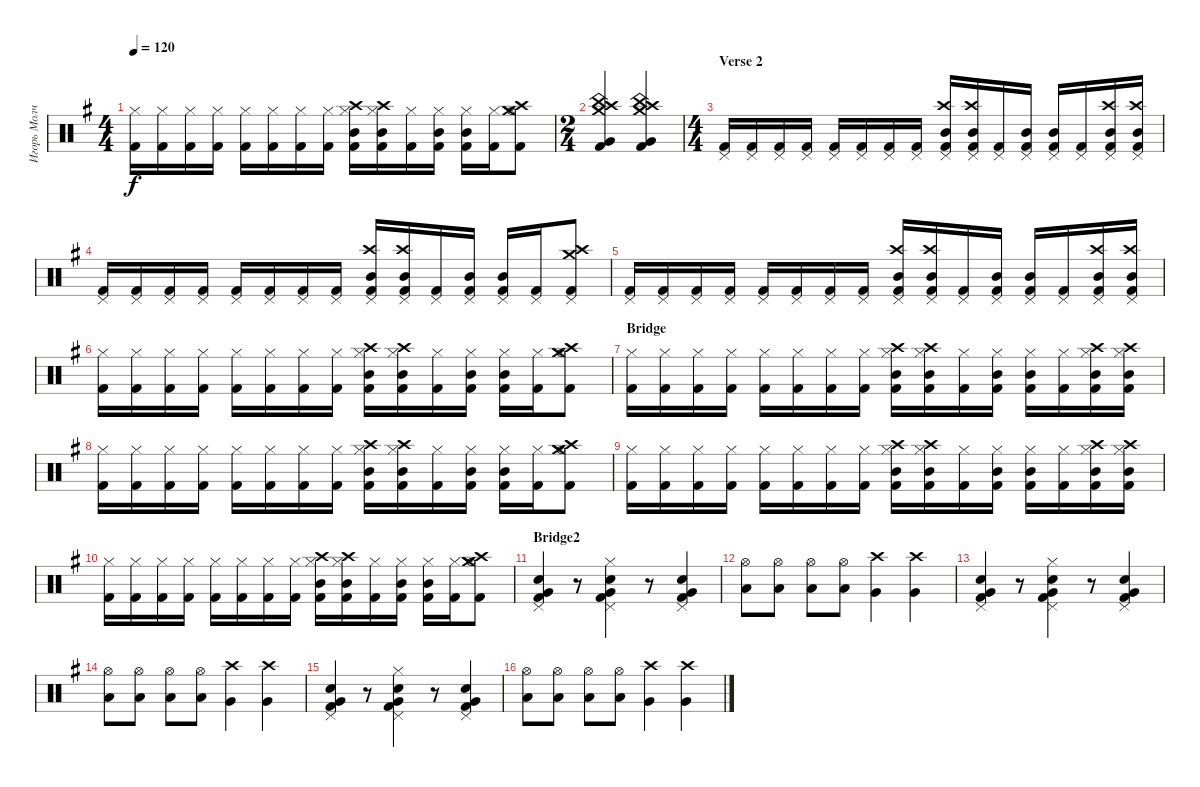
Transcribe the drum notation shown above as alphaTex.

\track ("Игорь Молчанов" "Игорь Молч") {instrument percussion}
\staff {score}
\articulation defaults
\ts (4 4)
\tempo 120
\clef neutral
\ks eminor
("Hi-Hat (closed)" "Kick (hit) 2").16{dy f} ("Hi-Hat (closed)" "Kick (hit) 2").16 ("Hi-Hat (closed)" "Kick (hit) 2").16 ("Hi-Hat (closed)" "Kick (hit) 2").16 ("Hi-Hat (closed)" "Kick (hit) 2").16 ("Hi-Hat (closed)" "Kick (hit) 2").16 ("Hi-Hat (closed)" "Kick (hit) 2").16 ("Hi-Hat (closed)" "Kick (hit) 2").16 ("Mid Tom (hit)" "Crash high (hit)" "Hi-Hat (closed)" "Kick (hit) 2").16 ("Mid Tom (hit)" "Crash high (hit)" "Hi-Hat (closed)" "Kick (hit) 2").16 ("Hi-Hat (closed)" "Kick (hit) 2").16 ("Mid Tom (hit)" "Hi-Hat (closed)" "Kick (hit) 2").16 ("Mid Tom (hit)" "Hi-Hat (closed)" "Kick (hit) 2").16 ("Hi-Hat (closed)" "Kick (hit) 2").16 ("Crash medium (hit)" "Crash high (hit)" "Hi-Hat (open)" "Kick (hit) 2").8 |
\ts (2 4)
("Crash medium (hit)" "China (hit)" "Crash high (hit)" "Very Low Tom (hit)" "Kick (hit) 2").4 ("Crash medium (hit)" "China (hit)" "Crash high (hit)" "Very Low Tom (hit)" "Kick (hit) 2").4 |
\ts (4 4)
\section ("" "Verse 2")
("Pedal Hi-Hat (hit)" "Kick (hit) 2").16 ("Pedal Hi-Hat (hit)" "Kick (hit) 2").16 ("Pedal Hi-Hat (hit)" "Kick (hit) 2").16 ("Pedal Hi-Hat (hit)" "Kick (hit) 2").16 ("Pedal Hi-Hat (hit)" "Kick (hit) 2").16 ("Pedal Hi-Hat (hit)" "Kick (hit) 2").16 ("Pedal Hi-Hat (hit)" "Kick (hit) 2").16 ("Pedal Hi-Hat (hit)" "Kick (hit) 2").16 ("Mid Tom (hit)" "Crash high (hit)" "Pedal Hi-Hat (hit)" "Kick (hit) 2").16 ("Mid Tom (hit)" "Crash high (hit)" "Pedal Hi-Hat (hit)" "Kick (hit) 2").16 ("Pedal Hi-Hat (hit)" "Kick (hit) 2").16 ("Mid Tom (hit)" "Pedal Hi-Hat (hit)" "Kick (hit) 2").16 ("Mid Tom (hit)" "Pedal Hi-Hat (hit)" "Kick (hit) 2").16 ("Pedal Hi-Hat (hit)" "Kick (hit) 2").16 ("Mid Tom (hit)" "Crash high (hit)" "Pedal Hi-Hat (hit)" "Kick (hit) 2").16 ("Mid Tom (hit)" "Crash high (hit)" "Pedal Hi-Hat (hit)" "Kick (hit) 2").16 |
("Pedal Hi-Hat (hit)" "Kick (hit) 2").16 ("Pedal Hi-Hat (hit)" "Kick (hit) 2").16 ("Pedal Hi-Hat (hit)" "Kick (hit) 2").16 ("Pedal Hi-Hat (hit)" "Kick (hit) 2").16 ("Pedal Hi-Hat (hit)" "Kick (hit) 2").16 ("Pedal Hi-Hat (hit)" "Kick (hit) 2").16 ("Pedal Hi-Hat (hit)" "Kick (hit) 2").16 ("Pedal Hi-Hat (hit)" "Kick (hit) 2").16 ("Mid Tom (hit)" "Crash high (hit)" "Pedal Hi-Hat (hit)" "Kick (hit) 2").16 ("Mid Tom (hit)" "Crash high (hit)" "Pedal Hi-Hat (hit)" "Kick (hit) 2").16 ("Pedal Hi-Hat (hit)" "Kick (hit) 2").16 ("Mid Tom (hit)" "Pedal Hi-Hat (hit)" "Kick (hit) 2").16 ("Mid Tom (hit)" "Pedal Hi-Hat (hit)" "Kick (hit) 2").16 ("Pedal Hi-Hat (hit)" "Kick (hit) 2").16 ("Crash medium (hit)" "Crash high (hit)" "Pedal Hi-Hat (hit)" "Kick (hit) 2").8 |
("Pedal Hi-Hat (hit)" "Kick (hit) 2").16 ("Pedal Hi-Hat (hit)" "Kick (hit) 2").16 ("Pedal Hi-Hat (hit)" "Kick (hit) 2").16 ("Pedal Hi-Hat (hit)" "Kick (hit) 2").16 ("Pedal Hi-Hat (hit)" "Kick (hit) 2").16 ("Pedal Hi-Hat (hit)" "Kick (hit) 2").16 ("Pedal Hi-Hat (hit)" "Kick (hit) 2").16 ("Pedal Hi-Hat (hit)" "Kick (hit) 2").16 ("Mid Tom (hit)" "Crash high (hit)" "Pedal Hi-Hat (hit)" "Kick (hit) 2").16 ("Mid Tom (hit)" "Crash high (hit)" "Pedal Hi-Hat (hit)" "Kick (hit) 2").16 ("Pedal Hi-Hat (hit)" "Kick (hit) 2").16 ("Mid Tom (hit)" "Pedal Hi-Hat (hit)" "Kick (hit) 2").16 ("Mid Tom (hit)" "Pedal Hi-Hat (hit)" "Kick (hit) 2").16 ("Pedal Hi-Hat (hit)" "Kick (hit) 2").16 ("Mid Tom (hit)" "Crash high (hit)" "Pedal Hi-Hat (hit)" "Kick (hit) 2").16 ("Mid Tom (hit)" "Crash high (hit)" "Pedal Hi-Hat (hit)" "Kick (hit) 2").16 |
("Hi-Hat (closed)" "Kick (hit) 2").16 ("Hi-Hat (closed)" "Kick (hit) 2").16 ("Hi-Hat (closed)" "Kick (hit) 2").16 ("Hi-Hat (closed)" "Kick (hit) 2").16 ("Hi-Hat (closed)" "Kick (hit) 2").16 ("Hi-Hat (closed)" "Kick (hit) 2").16 ("Hi-Hat (closed)" "Kick (hit) 2").16 ("Hi-Hat (closed)" "Kick (hit) 2").16 ("Mid Tom (hit)" "Crash high (hit)" "Hi-Hat (closed)" "Kick (hit) 2").16 ("Mid Tom (hit)" "Crash high (hit)" "Hi-Hat (closed)" "Kick (hit) 2").16 ("Hi-Hat (closed)" "Kick (hit) 2").16 ("Mid Tom (hit)" "Hi-Hat (closed)" "Kick (hit) 2").16 ("Mid Tom (hit)" "Hi-Hat (closed)" "Kick (hit) 2").16 ("Hi-Hat (closed)" "Kick (hit) 2").16 ("Crash medium (hit)" "Crash high (hit)" "Hi-Hat (open)" "Kick (hit) 2").8 |
\section ("" "Bridge")
("Hi-Hat (closed)" "Kick (hit) 2").16 ("Hi-Hat (closed)" "Kick (hit) 2").16 ("Hi-Hat (closed)" "Kick (hit) 2").16 ("Hi-Hat (closed)" "Kick (hit) 2").16 ("Hi-Hat (closed)" "Kick (hit) 2").16 ("Hi-Hat (closed)" "Kick (hit) 2").16 ("Hi-Hat (closed)" "Kick (hit) 2").16 ("Hi-Hat (closed)" "Kick (hit) 2").16 ("Mid Tom (hit)" "Crash high (hit)" "Hi-Hat (closed)" "Kick (hit) 2").16 ("Mid Tom (hit)" "Crash high (hit)" "Hi-Hat (closed)" "Kick (hit) 2").16 ("Hi-Hat (closed)" "Kick (hit) 2").16 ("Mid Tom (hit)" "Hi-Hat (closed)" "Kick (hit) 2").16 ("Mid Tom (hit)" "Hi-Hat (closed)" "Kick (hit) 2").16 ("Hi-Hat (closed)" "Kick (hit) 2").16 ("Mid Tom (hit)" "Crash high (hit)" "Hi-Hat (closed)" "Kick (hit) 2").16 ("Mid Tom (hit)" "Crash high (hit)" "Hi-Hat (closed)" "Kick (hit) 2").16 |
("Hi-Hat (closed)" "Kick (hit) 2").16 ("Hi-Hat (closed)" "Kick (hit) 2").16 ("Hi-Hat (closed)" "Kick (hit) 2").16 ("Hi-Hat (closed)" "Kick (hit) 2").16 ("Hi-Hat (closed)" "Kick (hit) 2").16 ("Hi-Hat (closed)" "Kick (hit) 2").16 ("Hi-Hat (closed)" "Kick (hit) 2").16 ("Hi-Hat (closed)" "Kick (hit) 2").16 ("Mid Tom (hit)" "Crash high (hit)" "Hi-Hat (closed)" "Kick (hit) 2").16 ("Mid Tom (hit)" "Crash high (hit)" "Hi-Hat (closed)" "Kick (hit) 2").16 ("Hi-Hat (closed)" "Kick (hit) 2").16 ("Mid Tom (hit)" "Hi-Hat (closed)" "Kick (hit) 2").16 ("Mid Tom (hit)" "Hi-Hat (closed)" "Kick (hit) 2").16 ("Hi-Hat (closed)" "Kick (hit) 2").16 ("Crash medium (hit)" "Crash high (hit)" "Hi-Hat (open)" "Kick (hit) 2").8 |
("Hi-Hat (closed)" "Kick (hit) 2").16 ("Hi-Hat (closed)" "Kick (hit) 2").16 ("Hi-Hat (closed)" "Kick (hit) 2").16 ("Hi-Hat (closed)" "Kick (hit) 2").16 ("Hi-Hat (closed)" "Kick (hit) 2").16 ("Hi-Hat (closed)" "Kick (hit) 2").16 ("Hi-Hat (closed)" "Kick (hit) 2").16 ("Hi-Hat (closed)" "Kick (hit) 2").16 ("Mid Tom (hit)" "Crash high (hit)" "Hi-Hat (closed)" "Kick (hit) 2").16 ("Mid Tom (hit)" "Crash high (hit)" "Hi-Hat (closed)" "Kick (hit) 2").16 ("Hi-Hat (closed)" "Kick (hit) 2").16 ("Mid Tom (hit)" "Hi-Hat (closed)" "Kick (hit) 2").16 ("Mid Tom (hit)" "Hi-Hat (closed)" "Kick (hit) 2").16 ("Hi-Hat (closed)" "Kick (hit) 2").16 ("Mid Tom (hit)" "Crash high (hit)" "Hi-Hat (closed)" "Kick (hit) 2").16 ("Mid Tom (hit)" "Crash high (hit)" "Hi-Hat (closed)" "Kick (hit) 2").16 |
("Hi-Hat (closed)" "Kick (hit) 2").16 ("Hi-Hat (closed)" "Kick (hit) 2").16 ("Hi-Hat (closed)" "Kick (hit) 2").16 ("Hi-Hat (closed)" "Kick (hit) 2").16 ("Hi-Hat (closed)" "Kick (hit) 2").16 ("Hi-Hat (closed)" "Kick (hit) 2").16 ("Hi-Hat (closed)" "Kick (hit) 2").16 ("Hi-Hat (closed)" "Kick (hit) 2").16 ("Mid Tom (hit)" "Crash high (hit)" "Hi-Hat (closed)" "Kick (hit) 2").16 ("Mid Tom (hit)" "Crash high (hit)" "Hi-Hat (closed)" "Kick (hit) 2").16 ("Hi-Hat (closed)" "Kick (hit) 2").16 ("Mid Tom (hit)" "Hi-Hat (closed)" "Kick (hit) 2").16 ("Mid Tom (hit)" "Hi-Hat (closed)" "Kick (hit) 2").16 ("Hi-Hat (closed)" "Kick (hit) 2").16 ("Crash medium (hit)" "Crash high (hit)" "Hi-Hat (open)" "Kick (hit) 2").8 |
\section ("" "Bridge2")
("Pedal Hi-Hat (hit)" "Very Low Tom (hit)" "Electric Snare (hit)" "Kick (hit) 2").4 r.8 ("Snare (hit) 2" "Hi-Hat (closed)" "Pedal Hi-Hat (hit)" "Very Low Tom (hit)" "Kick (hit) 2").4 r.8 ("Pedal Hi-Hat (hit)" "Very Low Tom (hit)" "Electric Snare (hit)" "Kick (hit) 2").4 |
("Low Floor Tom (hit)" "Hi-Hat (open)").8 ("Low Floor Tom (hit)" "Hi-Hat (open)").8 ("Low Floor Tom (hit)" "Hi-Hat (open)").8 ("Low Floor Tom (hit)" "Hi-Hat (open)").8 ("Very Low Tom (hit)" "Crash high (hit)").4 ("Very Low Tom (hit)" "Crash high (hit)").4 |
("Pedal Hi-Hat (hit)" "Very Low Tom (hit)" "Electric Snare (hit)" "Kick (hit) 2").4 r.8 ("Snare (hit) 2" "Hi-Hat (closed)" "Pedal Hi-Hat (hit)" "Very Low Tom (hit)" "Kick (hit) 2").4 r.8 ("Pedal Hi-Hat (hit)" "Very Low Tom (hit)" "Electric Snare (hit)" "Kick (hit) 2").4 |
("Low Floor Tom (hit)" "Hi-Hat (open)").8 ("Low Floor Tom (hit)" "Hi-Hat (open)").8 ("Low Floor Tom (hit)" "Hi-Hat (open)").8 ("Low Floor Tom (hit)" "Hi-Hat (open)").8 ("Very Low Tom (hit)" "Crash high (hit)").4 ("Very Low Tom (hit)" "Crash high (hit)").4 |
("Pedal Hi-Hat (hit)" "Very Low Tom (hit)" "Electric Snare (hit)" "Kick (hit) 2").4 r.8 ("Snare (hit) 2" "Hi-Hat (closed)" "Pedal Hi-Hat (hit)" "Very Low Tom (hit)" "Kick (hit) 2").4 r.8 ("Pedal Hi-Hat (hit)" "Very Low Tom (hit)" "Electric Snare (hit)" "Kick (hit) 2").4 |
("Low Floor Tom (hit)" "Hi-Hat (open)").8 ("Low Floor Tom (hit)" "Hi-Hat (open)").8 ("Low Floor Tom (hit)" "Hi-Hat (open)").8 ("Low Floor Tom (hit)" "Hi-Hat (open)").8 ("Very Low Tom (hit)" "Crash high (hit)").4 ("Very Low Tom (hit)" "Crash high (hit)").4
